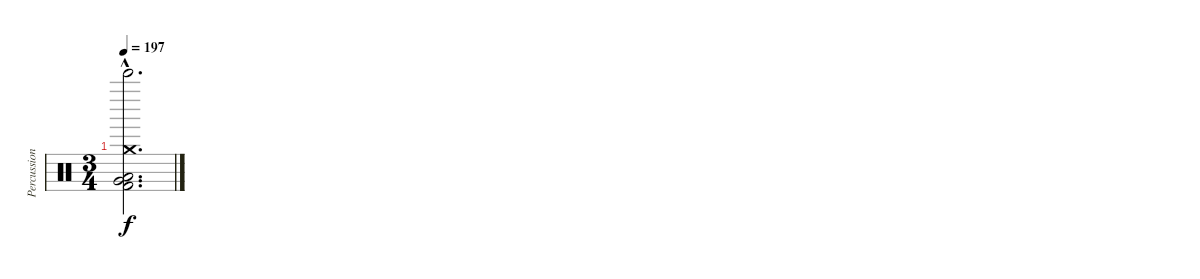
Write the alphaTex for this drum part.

\track ("Percussions" "Percussion") {instrument percussion}
\staff {score}
\articulation defaults
\ts (3 4)
\tempo 197
\clef neutral
\ks c
("Crash medium (hit)"{hac} "Bell Tree (hit)"{hac} "Very Low Tom (hit)"{hac} "Low Tom (hit)"{hac} "Kick (hit) 2"{hac}).2{d dy f}
